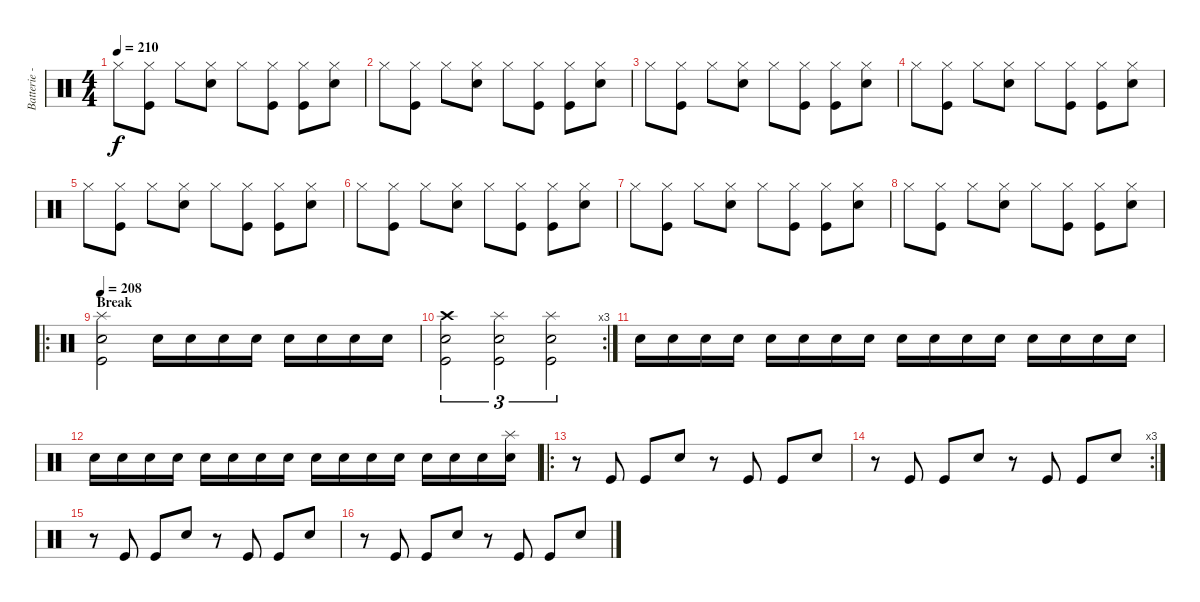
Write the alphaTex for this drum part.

\track ("Batterie - Guillaume" "Batterie -") {instrument percussion}
\staff {score}
\articulation defaults
\ts (4 4)
\tempo 210
\clef neutral
\ks c "Hi-Hat (closed)".8{dy f}
("Hi-Hat (closed)" "Kick (hit)").8 "Hi-Hat (closed)".8 ("Hi-Hat (closed)" "Snare (hit) 2").8 "Hi-Hat (closed)".8 ("Hi-Hat (closed)" "Kick (hit)").8 ("Hi-Hat (closed)" "Kick (hit)").8 ("Hi-Hat (closed)" "Snare (hit) 2").8 |
"Hi-Hat (closed)".8 ("Hi-Hat (closed)" "Kick (hit)").8 "Hi-Hat (closed)".8 ("Hi-Hat (closed)" "Snare (hit) 2").8 "Hi-Hat (closed)".8 ("Hi-Hat (closed)" "Kick (hit)").8 ("Hi-Hat (closed)" "Kick (hit)").8 ("Hi-Hat (closed)" "Snare (hit) 2").8 |
"Hi-Hat (closed)".8 ("Hi-Hat (closed)" "Kick (hit)").8 "Hi-Hat (closed)".8 ("Hi-Hat (closed)" "Snare (hit) 2").8 "Hi-Hat (closed)".8 ("Hi-Hat (closed)" "Kick (hit)").8 ("Hi-Hat (closed)" "Kick (hit)").8 ("Hi-Hat (closed)" "Snare (hit) 2").8 |
"Hi-Hat (closed)".8 ("Hi-Hat (closed)" "Kick (hit)").8 "Hi-Hat (closed)".8 ("Hi-Hat (closed)" "Snare (hit) 2").8 "Hi-Hat (closed)".8 ("Hi-Hat (closed)" "Kick (hit)").8 ("Hi-Hat (closed)" "Kick (hit)").8 ("Hi-Hat (closed)" "Snare (hit) 2").8 |
"Hi-Hat (closed)".8 ("Hi-Hat (closed)" "Kick (hit)").8 "Hi-Hat (closed)".8 ("Hi-Hat (closed)" "Snare (hit) 2").8 "Hi-Hat (closed)".8 ("Hi-Hat (closed)" "Kick (hit)").8 ("Hi-Hat (closed)" "Kick (hit)").8 ("Hi-Hat (closed)" "Snare (hit) 2").8 |
"Hi-Hat (closed)".8 ("Hi-Hat (closed)" "Kick (hit)").8 "Hi-Hat (closed)".8 ("Hi-Hat (closed)" "Snare (hit) 2").8 "Hi-Hat (closed)".8 ("Hi-Hat (closed)" "Kick (hit)").8 ("Hi-Hat (closed)" "Kick (hit)").8 ("Hi-Hat (closed)" "Snare (hit) 2").8 |
"Hi-Hat (closed)".8 ("Hi-Hat (closed)" "Kick (hit)").8 "Hi-Hat (closed)".8 ("Hi-Hat (closed)" "Snare (hit) 2").8 "Hi-Hat (closed)".8 ("Hi-Hat (closed)" "Kick (hit)").8 ("Hi-Hat (closed)" "Kick (hit)").8 ("Hi-Hat (closed)" "Snare (hit) 2").8 |
"Hi-Hat (closed)".8 ("Hi-Hat (closed)" "Kick (hit)").8 "Hi-Hat (closed)".8 ("Hi-Hat (closed)" "Snare (hit) 2").8 "Hi-Hat (closed)".8 ("Hi-Hat (closed)" "Kick (hit)").8 ("Hi-Hat (closed)" "Kick (hit)").8 ("Hi-Hat (closed)" "Snare (hit) 2").8 |
\ro
\section ("" "Break")
\tempo 208
("Splash (hit)" "Snare (hit) 2" "Kick (hit)").2 "Snare (hit) 2".16 "Snare (hit) 2".16 "Snare (hit) 2".16 "Snare (hit) 2".16 "Snare (hit) 2".16 "Snare (hit) 2".16 "Snare (hit) 2".16 "Snare (hit) 2".16 |
\rc 3
("Crash high (hit)" "Snare (hit) 2" "Kick (hit)").2{tu (3 2)} ("Splash (hit)" "Snare (hit) 2" "Kick (hit)").2{tu (3 2)} ("Splash (hit)" "Snare (hit) 2" "Kick (hit)").2{tu (3 2)} |
"Snare (hit) 2".16 "Snare (hit) 2".16 "Snare (hit) 2".16 "Snare (hit) 2".16 "Snare (hit) 2".16 "Snare (hit) 2".16 "Snare (hit) 2".16 "Snare (hit) 2".16 "Snare (hit) 2".16 "Snare (hit) 2".16 "Snare (hit) 2".16 "Snare (hit) 2".16 "Snare (hit) 2".16 "Snare (hit) 2".16 "Snare (hit) 2".16 "Snare (hit) 2".16 |
"Snare (hit) 2".16 "Snare (hit) 2".16 "Snare (hit) 2".16 "Snare (hit) 2".16 "Snare (hit) 2".16 "Snare (hit) 2".16 "Snare (hit) 2".16 "Snare (hit) 2".16 "Snare (hit) 2".16 "Snare (hit) 2".16 "Snare (hit) 2".16 "Snare (hit) 2".16 "Snare (hit) 2".16 "Snare (hit) 2".16 "Snare (hit) 2".16 ("Splash (hit)" "Snare (hit) 2").16 |
\ro
r.8 "Kick (hit)".8 "Kick (hit)".8 "Snare (hit) 2".8 r.8 "Kick (hit)".8 "Kick (hit)".8 "Snare (hit) 2".8 |
\rc 3
r.8 "Kick (hit)".8 "Kick (hit)".8 "Snare (hit) 2".8 r.8 "Kick (hit)".8 "Kick (hit)".8 "Snare (hit) 2".8 |
r.8 "Kick (hit)".8 "Kick (hit)".8 "Snare (hit) 2".8 r.8 "Kick (hit)".8 "Kick (hit)".8 "Snare (hit) 2".8 |
r.8 "Kick (hit)".8 "Kick (hit)".8 "Snare (hit) 2".8 r.8 "Kick (hit)".8 "Kick (hit)".8 "Snare (hit) 2".8
